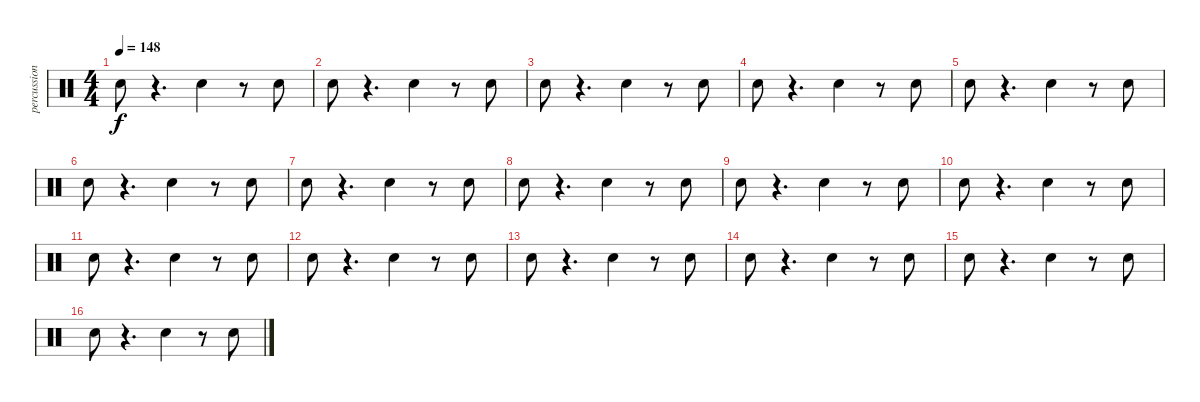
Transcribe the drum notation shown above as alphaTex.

\track ("percussion fx 1" "percussion") {instrument percussion}
\staff {score}
\articulation defaults
\ts (4 4)
\tempo 148
\clef neutral
\ks c "Snare (hit)".8{dy f}
r.4{d} "Snare (hit)".4 r.8 "Snare (hit)".8 |
"Snare (hit)".8 r.4{d} "Snare (hit)".4 r.8 "Snare (hit)".8 |
"Snare (hit)".8 r.4{d} "Snare (hit)".4 r.8 "Snare (hit)".8 |
"Snare (hit)".8 r.4{d} "Snare (hit)".4 r.8 "Snare (hit)".8 |
"Snare (hit)".8 r.4{d} "Snare (hit)".4 r.8 "Snare (hit)".8 |
"Snare (hit)".8 r.4{d} "Snare (hit)".4 r.8 "Snare (hit)".8 |
"Snare (hit)".8 r.4{d} "Snare (hit)".4 r.8 "Snare (hit)".8 |
"Snare (hit)".8 r.4{d} "Snare (hit)".4 r.8 "Snare (hit)".8 |
"Snare (hit)".8 r.4{d} "Snare (hit)".4 r.8 "Snare (hit)".8 |
"Snare (hit)".8 r.4{d} "Snare (hit)".4 r.8 "Snare (hit)".8 |
"Snare (hit)".8 r.4{d} "Snare (hit)".4 r.8 "Snare (hit)".8 |
"Snare (hit)".8 r.4{d} "Snare (hit)".4 r.8 "Snare (hit)".8 |
"Snare (hit)".8 r.4{d} "Snare (hit)".4 r.8 "Snare (hit)".8 |
"Snare (hit)".8 r.4{d} "Snare (hit)".4 r.8 "Snare (hit)".8 |
"Snare (hit)".8 r.4{d} "Snare (hit)".4 r.8 "Snare (hit)".8 |
"Snare (hit)".8 r.4{d} "Snare (hit)".4 r.8 "Snare (hit)".8
